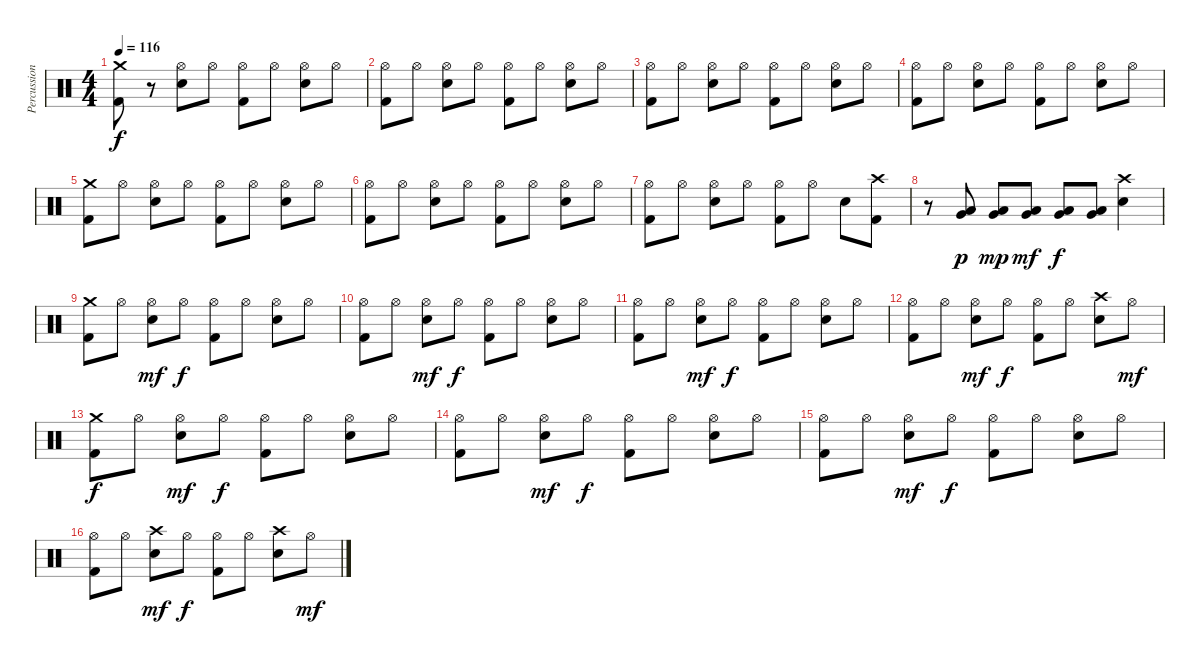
\track ("Percussion" "Percussion") {instrument percussion}
\staff {score}
\articulation defaults
\ts (4 4)
\tempo 116
\clef neutral
\ks c
("Kick (hit) 2" "Crash medium (hit)").8{dy f} r.8 ("Snare (hit) 2" "Hi-Hat (open)").8 "Hi-Hat (open)".8 ("Kick (hit) 2" "Hi-Hat (open)").8 "Hi-Hat (open)".8 ("Snare (hit) 2" "Hi-Hat (open)").8 "Hi-Hat (open)".8 |
("Kick (hit) 2" "Hi-Hat (open)").8 "Hi-Hat (open)".8 ("Snare (hit) 2" "Hi-Hat (open)").8 "Hi-Hat (open)".8 ("Kick (hit) 2" "Hi-Hat (open)").8 "Hi-Hat (open)".8 ("Snare (hit) 2" "Hi-Hat (open)").8 "Hi-Hat (open)".8 |
("Kick (hit) 2" "Hi-Hat (open)").8 "Hi-Hat (open)".8 ("Snare (hit) 2" "Hi-Hat (open)").8 "Hi-Hat (open)".8 ("Kick (hit) 2" "Hi-Hat (open)").8 "Hi-Hat (open)".8 ("Snare (hit) 2" "Hi-Hat (open)").8 "Hi-Hat (open)".8 |
("Kick (hit) 2" "Hi-Hat (open)").8 "Hi-Hat (open)".8 ("Snare (hit) 2" "Hi-Hat (open)").8 "Hi-Hat (open)".8 ("Kick (hit) 2" "Hi-Hat (open)").8 "Hi-Hat (open)".8 ("Snare (hit) 2" "Hi-Hat (open)").8 "Hi-Hat (open)".8 |
("Kick (hit) 2" "Crash medium (hit)").8 "Hi-Hat (open)".8 ("Snare (hit) 2" "Hi-Hat (open)").8 "Hi-Hat (open)".8 ("Kick (hit) 2" "Hi-Hat (open)").8 "Hi-Hat (open)".8 ("Snare (hit) 2" "Hi-Hat (open)").8 "Hi-Hat (open)".8 |
("Kick (hit) 2" "Hi-Hat (open)").8 "Hi-Hat (open)".8 ("Snare (hit) 2" "Hi-Hat (open)").8 "Hi-Hat (open)".8 ("Kick (hit) 2" "Hi-Hat (open)").8 "Hi-Hat (open)".8 ("Snare (hit) 2" "Hi-Hat (open)").8 "Hi-Hat (open)".8 |
("Kick (hit) 2" "Hi-Hat (open)").8 "Hi-Hat (open)".8 ("Snare (hit) 2" "Hi-Hat (open)").8 "Hi-Hat (open)".8 ("Kick (hit) 2" "Hi-Hat (open)").8 "Hi-Hat (open)".8 "Snare (hit) 2".8 ("Kick (hit) 2" "Crash high (hit)").8 |
r.8 ("Very Low Tom (hit)" "Low Tom (hit)").8{dy p} ("Very Low Tom (hit)" "Low Tom (hit)").8{dy mp} ("Very Low Tom (hit)" "Low Tom (hit)").8{dy mf} ("Very Low Tom (hit)" "Low Tom (hit)").8{dy f} ("Very Low Tom (hit)" "Low Tom (hit)").8 ("Snare (hit) 2" "Crash high (hit)").4 |
("Kick (hit) 2" "Crash medium (hit)").8 "Hi-Hat (open)".8 ("Snare (hit) 2" "Hi-Hat (open)").8{dy mf} "Hi-Hat (open)".8{dy f} ("Kick (hit) 2" "Hi-Hat (open)").8 "Hi-Hat (open)".8 ("Snare (hit) 2" "Hi-Hat (open)").8 "Hi-Hat (open)".8 |
("Kick (hit) 2" "Hi-Hat (open)").8 "Hi-Hat (open)".8 ("Snare (hit) 2" "Hi-Hat (open)").8{dy mf} "Hi-Hat (open)".8{dy f} ("Kick (hit) 2" "Hi-Hat (open)").8 "Hi-Hat (open)".8 ("Snare (hit) 2" "Hi-Hat (open)").8 "Hi-Hat (open)".8 |
("Kick (hit) 2" "Hi-Hat (open)").8 "Hi-Hat (open)".8 ("Snare (hit) 2" "Hi-Hat (open)").8{dy mf} "Hi-Hat (open)".8{dy f} ("Kick (hit) 2" "Hi-Hat (open)").8 "Hi-Hat (open)".8 ("Snare (hit) 2" "Hi-Hat (open)").8 "Hi-Hat (open)".8 |
("Kick (hit) 2" "Hi-Hat (open)").8 "Hi-Hat (open)".8 ("Snare (hit) 2" "Hi-Hat (open)").8{dy mf} "Hi-Hat (open)".8{dy f} ("Kick (hit) 2" "Hi-Hat (open)").8 "Hi-Hat (open)".8 ("Snare (hit) 2" "Crash high (hit)").8 "Hi-Hat (open)".8{dy mf} |
("Kick (hit) 2" "Crash medium (hit)").8{dy f} "Hi-Hat (open)".8 ("Snare (hit) 2" "Hi-Hat (open)").8{dy mf} "Hi-Hat (open)".8{dy f} ("Kick (hit) 2" "Hi-Hat (open)").8 "Hi-Hat (open)".8 ("Snare (hit) 2" "Hi-Hat (open)").8 "Hi-Hat (open)".8 |
("Kick (hit) 2" "Hi-Hat (open)").8 "Hi-Hat (open)".8 ("Snare (hit) 2" "Hi-Hat (open)").8{dy mf} "Hi-Hat (open)".8{dy f} ("Kick (hit) 2" "Hi-Hat (open)").8 "Hi-Hat (open)".8 ("Snare (hit) 2" "Hi-Hat (open)").8 "Hi-Hat (open)".8 |
("Kick (hit) 2" "Hi-Hat (open)").8 "Hi-Hat (open)".8 ("Snare (hit) 2" "Hi-Hat (open)").8{dy mf} "Hi-Hat (open)".8{dy f} ("Kick (hit) 2" "Hi-Hat (open)").8 "Hi-Hat (open)".8 ("Snare (hit) 2" "Hi-Hat (open)").8 "Hi-Hat (open)".8 |
("Kick (hit) 2" "Hi-Hat (open)").8 "Hi-Hat (open)".8 ("Snare (hit) 2" "Crash high (hit)").8{dy mf} "Hi-Hat (open)".8{dy f} ("Kick (hit) 2" "Hi-Hat (open)").8 "Hi-Hat (open)".8 ("Snare (hit) 2" "Crash high (hit)").8 "Hi-Hat (open)".8{dy mf}
